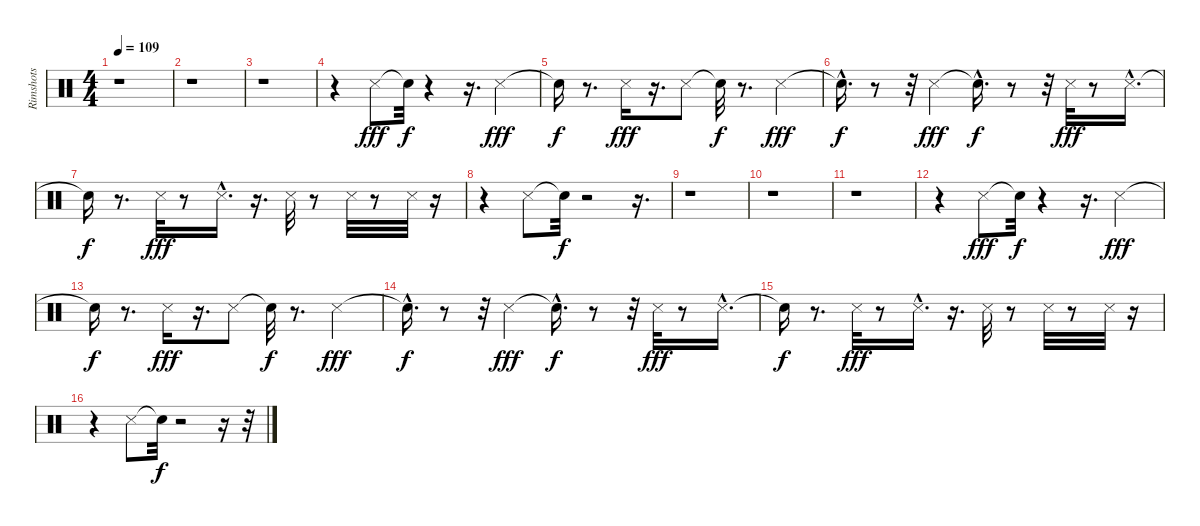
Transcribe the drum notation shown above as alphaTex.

\track ("Rimshots        " "Rimshots  ") {instrument percussion}
\staff {score}
\articulation defaults
\ts (4 4)
\tempo 109
\clef neutral
\ks c
r.1{dy f} |
r.1 |
r.1 |
r.4 "Snare (side stick) 3".8{dy fff} "Snare (hit)"{t}.32{dy f} r.4 r.16{d} "Snare (side stick) 3".4{dy fff} |
"Snare (hit)"{t}.16{dy f} r.8{d} "Snare (side stick) 3".16{dy fff} r.16{d} "Snare (side stick) 3".8 "Snare (hit)"{t}.32{dy f} r.8{d} "Snare (side stick) 3".4{dy fff} |
"Snare (hit)"{hac t}.16{d dy f} r.8 r.32 "Snare (side stick) 3".4{dy fff} "Snare (hit)"{hac t}.16{d dy f} r.8 r.32 "Snare (side stick) 3".32{dy fff} r.8 "Snare (side stick) 3"{hac}.16{d} |
"Snare (hit)"{t}.16{dy f} r.8{d} "Snare (side stick) 3".32{dy fff} r.8 "Snare (side stick) 3"{hac}.16{d} r.16{d} "Snare (side stick) 3".32 r.8 "Snare (side stick) 3".32 r.8 "Snare (side stick) 3".32 r.16 |
r.4 "Snare (side stick) 3".8 "Snare (hit)"{t}.32{dy f} r.2 r.16{d} |
r.1 |
r.1 |
r.1 |
r.4 "Snare (side stick) 3".8{dy fff} "Snare (hit)"{t}.32{dy f} r.4 r.16{d} "Snare (side stick) 3".4{dy fff} |
"Snare (hit)"{t}.16{dy f} r.8{d} "Snare (side stick) 3".16{dy fff} r.16{d} "Snare (side stick) 3".8 "Snare (hit)"{t}.32{dy f} r.8{d} "Snare (side stick) 3".4{dy fff} |
"Snare (hit)"{hac t}.16{d dy f} r.8 r.32 "Snare (side stick) 3".4{dy fff} "Snare (hit)"{hac t}.16{d dy f} r.8 r.32 "Snare (side stick) 3".32{dy fff} r.8 "Snare (side stick) 3"{hac}.16{d} |
"Snare (hit)"{t}.16{dy f} r.8{d} "Snare (side stick) 3".32{dy fff} r.8 "Snare (side stick) 3"{hac}.16{d} r.16{d} "Snare (side stick) 3".32 r.8 "Snare (side stick) 3".32 r.8 "Snare (side stick) 3".32 r.16 |
r.4 "Snare (side stick) 3".8 "Snare (hit)"{t}.32{dy f} r.2 r.16 r.32
